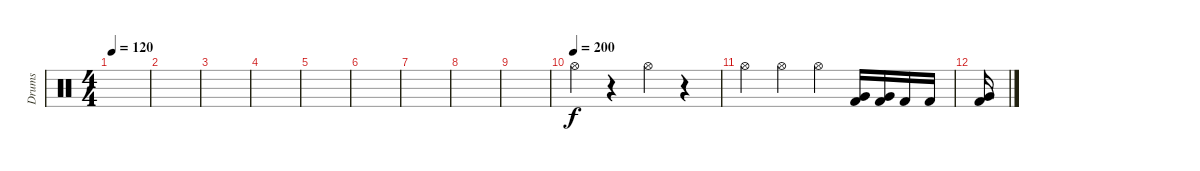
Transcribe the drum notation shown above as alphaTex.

\track ("Drums" "Drums") {instrument percussion}
\staff {score}
\articulation defaults
\ts (4 4)
\tempo 120
\clef neutral
\ks c
|
|
|
|
|
|
|
|
|
\tempo (200)
"Hi-Hat (open)".4 r.4 "Hi-Hat (open)".4 r.4 |
"Hi-Hat (open)".4 "Hi-Hat (open)".4 "Hi-Hat (open)".4 ("Very Low Tom (hit)" "Kick (hit) 2").16 ("Very Low Tom (hit)" "Kick (hit) 2").16 "Kick (hit) 2".16 "Kick (hit) 2".16 |
("Very Low Tom (hit)" "Kick (hit) 2").16
